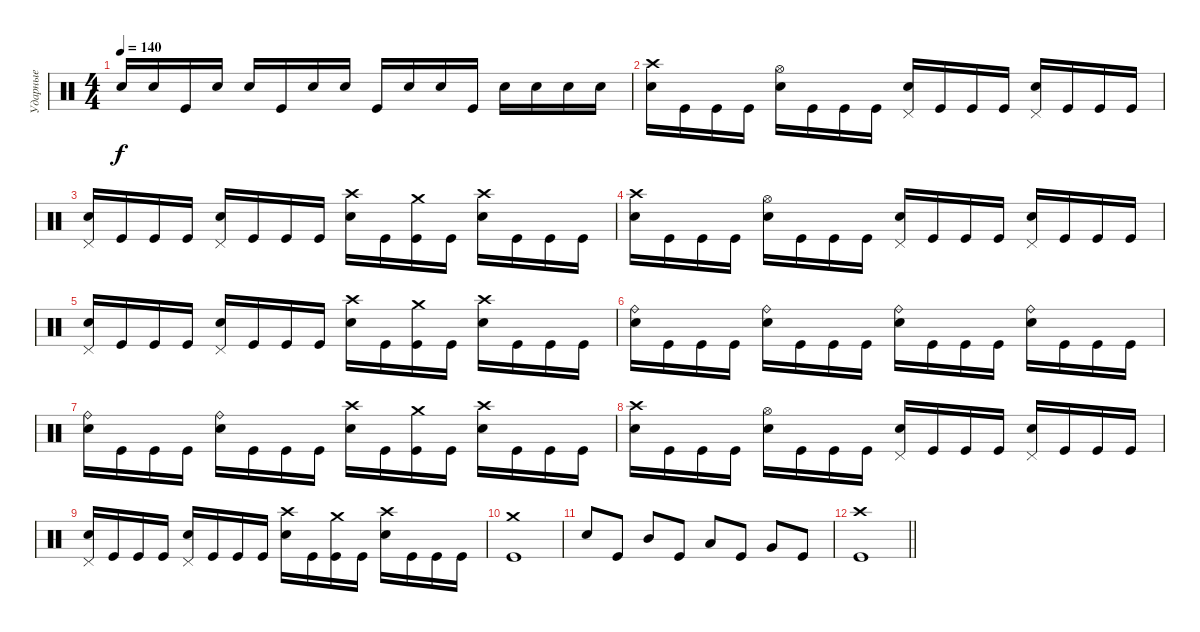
\track ("Ударные" "Ударные") {instrument percussion}
\staff {score}
\articulation defaults
\ts (4 4)
\tempo 140
\clef neutral
\ks c "Electric Snare (hit)".16{dy f} "Electric Snare (hit)".16 "Kick (hit)".16 "Electric Snare (hit)".16 "Electric Snare (hit)".16 "Kick (hit)".16 "Electric Snare (hit)".16 "Electric Snare (hit)".16 "Kick (hit)".16 "Electric Snare (hit)".16 "Electric Snare (hit)".16 "Kick (hit)".16 "Electric Snare (hit)".16 "Electric Snare (hit)".16 "Electric Snare (hit)".16 "Electric Snare (hit)".16
|
("Electric Snare (hit)" "Crash high (hit)").16 "Kick (hit)".16 "Kick (hit)".16 "Kick (hit)".16 ("Electric Snare (hit)" "Hi-Hat (open)").16 "Kick (hit)".16 "Kick (hit)".16 "Kick (hit)".16 ("Electric Snare (hit)" "Pedal Hi-Hat (hit)").16 "Kick (hit)".16 "Kick (hit)".16 "Kick (hit)".16 ("Electric Snare (hit)" "Pedal Hi-Hat (hit)").16 "Kick (hit)".16 "Kick (hit)".16 "Kick (hit)".16 |
("Electric Snare (hit)" "Pedal Hi-Hat (hit)").16 "Kick (hit)".16 "Kick (hit)".16 "Kick (hit)".16 ("Electric Snare (hit)" "Pedal Hi-Hat (hit)").16 "Kick (hit)".16 "Kick (hit)".16 "Kick (hit)".16 ("Crash high (hit)" "Electric Snare (hit)").16 "Kick (hit)".16 ("Crash medium (hit)" "Kick (hit)").16 "Kick (hit)".16 ("Crash high (hit)" "Electric Snare (hit)").16 "Kick (hit)".16 "Kick (hit)".16 "Kick (hit)".16 |
("Electric Snare (hit)" "Crash high (hit)").16 "Kick (hit)".16 "Kick (hit)".16 "Kick (hit)".16 ("Electric Snare (hit)" "Hi-Hat (open)").16 "Kick (hit)".16 "Kick (hit)".16 "Kick (hit)".16 ("Electric Snare (hit)" "Pedal Hi-Hat (hit)").16 "Kick (hit)".16 "Kick (hit)".16 "Kick (hit)".16 ("Electric Snare (hit)" "Pedal Hi-Hat (hit)").16 "Kick (hit)".16 "Kick (hit)".16 "Kick (hit)".16 |
("Electric Snare (hit)" "Pedal Hi-Hat (hit)").16 "Kick (hit)".16 "Kick (hit)".16 "Kick (hit)".16 ("Electric Snare (hit)" "Pedal Hi-Hat (hit)").16 "Kick (hit)".16 "Kick (hit)".16 "Kick (hit)".16 ("Crash high (hit)" "Electric Snare (hit)").16 "Kick (hit)".16 ("Crash medium (hit)" "Kick (hit)").16 "Kick (hit)".16 ("Crash high (hit)" "Electric Snare (hit)").16 "Kick (hit)".16 "Kick (hit)".16 "Kick (hit)".16 |
("Electric Snare (hit)" "Ride (bell)").16 "Kick (hit)".16 "Kick (hit)".16 "Kick (hit)".16 ("Electric Snare (hit)" "Ride (bell)").16 "Kick (hit)".16 "Kick (hit)".16 "Kick (hit)".16 ("Electric Snare (hit)" "Ride (bell)").16 "Kick (hit)".16 "Kick (hit)".16 "Kick (hit)".16 ("Electric Snare (hit)" "Ride (bell)").16 "Kick (hit)".16 "Kick (hit)".16 "Kick (hit)".16 |
("Electric Snare (hit)" "Ride (bell)").16 "Kick (hit)".16 "Kick (hit)".16 "Kick (hit)".16 ("Electric Snare (hit)" "Ride (bell)").16 "Kick (hit)".16 "Kick (hit)".16 "Kick (hit)".16 ("Crash high (hit)" "Electric Snare (hit)").16 "Kick (hit)".16 ("Crash medium (hit)" "Kick (hit)").16 "Kick (hit)".16 ("Crash high (hit)" "Electric Snare (hit)").16 "Kick (hit)".16 "Kick (hit)".16 "Kick (hit)".16 |
("Electric Snare (hit)" "Crash high (hit)").16 "Kick (hit)".16 "Kick (hit)".16 "Kick (hit)".16 ("Electric Snare (hit)" "Hi-Hat (open)").16 "Kick (hit)".16 "Kick (hit)".16 "Kick (hit)".16 ("Electric Snare (hit)" "Pedal Hi-Hat (hit)").16 "Kick (hit)".16 "Kick (hit)".16 "Kick (hit)".16 ("Electric Snare (hit)" "Pedal Hi-Hat (hit)").16 "Kick (hit)".16 "Kick (hit)".16 "Kick (hit)".16 |
("Electric Snare (hit)" "Pedal Hi-Hat (hit)").16 "Kick (hit)".16 "Kick (hit)".16 "Kick (hit)".16 ("Electric Snare (hit)" "Pedal Hi-Hat (hit)").16 "Kick (hit)".16 "Kick (hit)".16 "Kick (hit)".16 ("Crash high (hit)" "Electric Snare (hit)").16 "Kick (hit)".16 ("Crash medium (hit)" "Kick (hit)").16 "Kick (hit)".16 ("Crash high (hit)" "Electric Snare (hit)").16 "Kick (hit)".16 "Kick (hit)".16 "Kick (hit)".16 |
("Crash medium (hit)" "Kick (hit)").1 |
"Electric Snare (hit)".8 "Kick (hit)".8 "Mid Tom (hit)".8 "Kick (hit)".8 "Low Tom (hit)".8 "Kick (hit)".8 "Very Low Tom (hit)".8 "Kick (hit)".8 |
\barLineRight lightlight
("Crash high (hit)" "Kick (hit)").1
